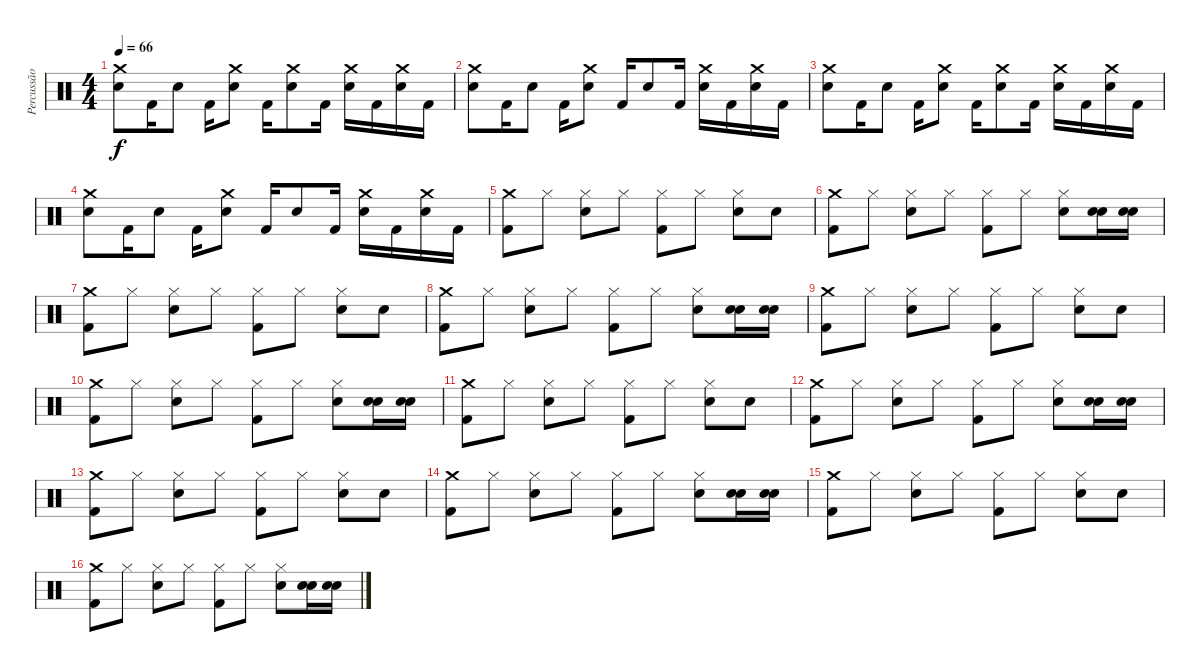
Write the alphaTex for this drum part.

\track ("Percussão" "Percussão") {instrument percussion}
\staff {score}
\articulation defaults
\ts (4 4)
\tempo 66
\clef neutral
\ks c
("Crash medium (hit)" "Snare (hit) 2").8{dy f} "Kick (hit) 2".16 "Snare (hit) 2".8 "Kick (hit) 2".16 ("Crash medium (hit)" "Snare (hit) 2").8 "Kick (hit) 2".16 ("Crash medium (hit)" "Snare (hit) 2").8 "Kick (hit) 2".16 ("Crash medium (hit)" "Snare (hit) 2").16 "Kick (hit) 2".16 ("Crash medium (hit)" "Snare (hit) 2").16 "Kick (hit) 2".16 |
("Crash medium (hit)" "Snare (hit) 2").8 "Kick (hit) 2".16 "Snare (hit) 2".8 "Kick (hit) 2".16 ("Crash medium (hit)" "Snare (hit) 2").8 "Kick (hit) 2".16 "Snare (hit) 2".8 "Kick (hit) 2".16 ("Crash medium (hit)" "Snare (hit) 2").16 "Kick (hit) 2".16 ("Crash medium (hit)" "Snare (hit) 2").16 "Kick (hit) 2".16 |
("Crash medium (hit)" "Snare (hit) 2").8 "Kick (hit) 2".16 "Snare (hit) 2".8 "Kick (hit) 2".16 ("Crash medium (hit)" "Snare (hit) 2").8 "Kick (hit) 2".16 ("Crash medium (hit)" "Snare (hit) 2").8 "Kick (hit) 2".16 ("Crash medium (hit)" "Snare (hit) 2").16 "Kick (hit) 2".16 ("Crash medium (hit)" "Snare (hit) 2").16 "Kick (hit) 2".16 |
("Crash medium (hit)" "Snare (hit) 2").8 "Kick (hit) 2".16 "Snare (hit) 2".8 "Kick (hit) 2".16 ("Crash medium (hit)" "Snare (hit) 2").8 "Kick (hit) 2".16 "Snare (hit) 2".8 "Kick (hit) 2".16 ("Crash medium (hit)" "Snare (hit) 2").16 "Kick (hit) 2".16 ("Crash medium (hit)" "Snare (hit) 2").16 "Kick (hit) 2".16 |
("Crash medium (hit)" "Kick (hit) 2").8 "Hi-Hat (closed)".8 ("Hi-Hat (closed)" "Snare (hit) 2").8 "Hi-Hat (closed)".8 ("Hi-Hat (closed)" "Kick (hit) 2").8 "Hi-Hat (closed)".8 ("Hi-Hat (closed)" "Snare (hit) 2").8 "Snare (hit) 2".8 |
("Crash medium (hit)" "Kick (hit) 2").8 "Hi-Hat (closed)".8 ("Hi-Hat (closed)" "Snare (hit) 2").8 "Hi-Hat (closed)".8 ("Hi-Hat (closed)" "Kick (hit) 2").8 "Hi-Hat (closed)".8 ("Hi-Hat (closed)" "Snare (hit) 2").8 ("Snare (hit) 2" "Snare (hit) 2").16{bu 240} ("Snare (hit) 2" "Snare (hit) 2").16{bu 240} |
("Crash medium (hit)" "Kick (hit) 2").8 "Hi-Hat (closed)".8 ("Hi-Hat (closed)" "Snare (hit) 2").8 "Hi-Hat (closed)".8 ("Hi-Hat (closed)" "Kick (hit) 2").8 "Hi-Hat (closed)".8 ("Hi-Hat (closed)" "Snare (hit) 2").8 "Snare (hit) 2".8 |
("Crash medium (hit)" "Kick (hit) 2").8 "Hi-Hat (closed)".8 ("Hi-Hat (closed)" "Snare (hit) 2").8 "Hi-Hat (closed)".8 ("Hi-Hat (closed)" "Kick (hit) 2").8 "Hi-Hat (closed)".8 ("Hi-Hat (closed)" "Snare (hit) 2").8 ("Snare (hit) 2" "Snare (hit) 2").16{bu 240} ("Snare (hit) 2" "Snare (hit) 2").16{bu 240} |
("Crash medium (hit)" "Kick (hit) 2").8 "Hi-Hat (closed)".8 ("Hi-Hat (closed)" "Snare (hit) 2").8 "Hi-Hat (closed)".8 ("Hi-Hat (closed)" "Kick (hit) 2").8 "Hi-Hat (closed)".8 ("Hi-Hat (closed)" "Snare (hit) 2").8 "Snare (hit) 2".8 |
("Crash medium (hit)" "Kick (hit) 2").8 "Hi-Hat (closed)".8 ("Hi-Hat (closed)" "Snare (hit) 2").8 "Hi-Hat (closed)".8 ("Hi-Hat (closed)" "Kick (hit) 2").8 "Hi-Hat (closed)".8 ("Hi-Hat (closed)" "Snare (hit) 2").8 ("Snare (hit) 2" "Snare (hit) 2").16{bu 240} ("Snare (hit) 2" "Snare (hit) 2").16{bu 240} |
("Crash medium (hit)" "Kick (hit) 2").8 "Hi-Hat (closed)".8 ("Hi-Hat (closed)" "Snare (hit) 2").8 "Hi-Hat (closed)".8 ("Hi-Hat (closed)" "Kick (hit) 2").8 "Hi-Hat (closed)".8 ("Hi-Hat (closed)" "Snare (hit) 2").8 "Snare (hit) 2".8 |
("Crash medium (hit)" "Kick (hit) 2").8 "Hi-Hat (closed)".8 ("Hi-Hat (closed)" "Snare (hit) 2").8 "Hi-Hat (closed)".8 ("Hi-Hat (closed)" "Kick (hit) 2").8 "Hi-Hat (closed)".8 ("Hi-Hat (closed)" "Snare (hit) 2").8 ("Snare (hit) 2" "Snare (hit) 2").16{bu 240} ("Snare (hit) 2" "Snare (hit) 2").16{bu 240} |
("Crash medium (hit)" "Kick (hit) 2").8 "Hi-Hat (closed)".8 ("Hi-Hat (closed)" "Snare (hit) 2").8 "Hi-Hat (closed)".8 ("Hi-Hat (closed)" "Kick (hit) 2").8 "Hi-Hat (closed)".8 ("Hi-Hat (closed)" "Snare (hit) 2").8 "Snare (hit) 2".8 |
("Crash medium (hit)" "Kick (hit) 2").8 "Hi-Hat (closed)".8 ("Hi-Hat (closed)" "Snare (hit) 2").8 "Hi-Hat (closed)".8 ("Hi-Hat (closed)" "Kick (hit) 2").8 "Hi-Hat (closed)".8 ("Hi-Hat (closed)" "Snare (hit) 2").8 ("Snare (hit) 2" "Snare (hit) 2").16{bu 240} ("Snare (hit) 2" "Snare (hit) 2").16{bu 240} |
("Crash medium (hit)" "Kick (hit) 2").8 "Hi-Hat (closed)".8 ("Hi-Hat (closed)" "Snare (hit) 2").8 "Hi-Hat (closed)".8 ("Hi-Hat (closed)" "Kick (hit) 2").8 "Hi-Hat (closed)".8 ("Hi-Hat (closed)" "Snare (hit) 2").8 "Snare (hit) 2".8 |
("Crash medium (hit)" "Kick (hit) 2").8 "Hi-Hat (closed)".8 ("Hi-Hat (closed)" "Snare (hit) 2").8 "Hi-Hat (closed)".8 ("Hi-Hat (closed)" "Kick (hit) 2").8 "Hi-Hat (closed)".8 ("Hi-Hat (closed)" "Snare (hit) 2").8 ("Snare (hit) 2" "Snare (hit) 2").16{bu 240} ("Snare (hit) 2" "Snare (hit) 2").16{bu 240}
